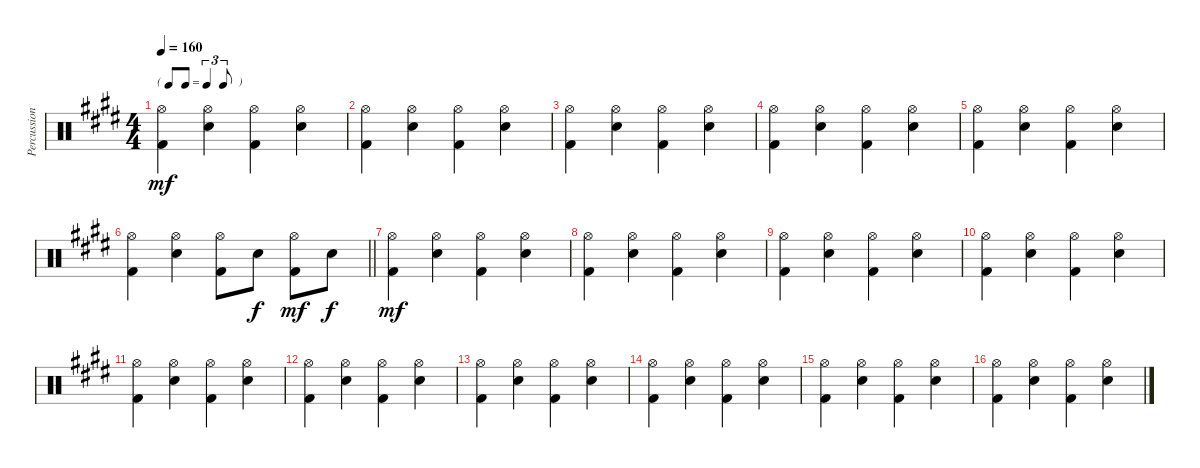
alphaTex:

\track ("Percussion" "Percussion") {instrument percussion}
\staff {score}
\articulation defaults
\ts (4 4)
\tf triplet8th
\tempo 160
\clef neutral
\ks e
("Hi-Hat (open)" "Kick (hit) 2").4{dy mf} ("Hi-Hat (open)" "Snare (hit) 2").4 ("Hi-Hat (open)" "Kick (hit) 2").4 ("Hi-Hat (open)" "Snare (hit) 2").4 |
("Hi-Hat (open)" "Kick (hit) 2").4 ("Hi-Hat (open)" "Snare (hit) 2").4 ("Hi-Hat (open)" "Kick (hit) 2").4 ("Hi-Hat (open)" "Snare (hit) 2").4 |
("Hi-Hat (open)" "Kick (hit) 2").4 ("Hi-Hat (open)" "Snare (hit) 2").4 ("Hi-Hat (open)" "Kick (hit) 2").4 ("Hi-Hat (open)" "Snare (hit) 2").4 |
("Hi-Hat (open)" "Kick (hit) 2").4 ("Hi-Hat (open)" "Snare (hit) 2").4 ("Hi-Hat (open)" "Kick (hit) 2").4 ("Hi-Hat (open)" "Snare (hit) 2").4 |
("Hi-Hat (open)" "Kick (hit) 2").4 ("Hi-Hat (open)" "Snare (hit) 2").4 ("Hi-Hat (open)" "Kick (hit) 2").4 ("Hi-Hat (open)" "Snare (hit) 2").4 |
\barLineRight lightlight
("Hi-Hat (open)" "Kick (hit) 2").4 ("Hi-Hat (open)" "Snare (hit) 2").4 ("Hi-Hat (open)" "Kick (hit) 2").8 "Snare (hit) 2".8{dy f} ("Hi-Hat (open)" "Kick (hit) 2").8{dy mf} "Snare (hit) 2".8{dy f} |
("Hi-Hat (open)" "Kick (hit) 2").4{dy mf} ("Hi-Hat (open)" "Snare (hit) 2").4 ("Hi-Hat (open)" "Kick (hit) 2").4 ("Hi-Hat (open)" "Snare (hit) 2").4 |
("Hi-Hat (open)" "Kick (hit) 2").4 ("Hi-Hat (open)" "Snare (hit) 2").4 ("Hi-Hat (open)" "Kick (hit) 2").4 ("Hi-Hat (open)" "Snare (hit) 2").4 |
("Hi-Hat (open)" "Kick (hit) 2").4 ("Hi-Hat (open)" "Snare (hit) 2").4 ("Hi-Hat (open)" "Kick (hit) 2").4 ("Hi-Hat (open)" "Snare (hit) 2").4 |
("Hi-Hat (open)" "Kick (hit) 2").4 ("Hi-Hat (open)" "Snare (hit) 2").4 ("Hi-Hat (open)" "Kick (hit) 2").4 ("Hi-Hat (open)" "Snare (hit) 2").4 |
("Hi-Hat (open)" "Kick (hit) 2").4 ("Hi-Hat (open)" "Snare (hit) 2").4 ("Hi-Hat (open)" "Kick (hit) 2").4 ("Hi-Hat (open)" "Snare (hit) 2").4 |
("Hi-Hat (open)" "Kick (hit) 2").4 ("Hi-Hat (open)" "Snare (hit) 2").4 ("Hi-Hat (open)" "Kick (hit) 2").4 ("Hi-Hat (open)" "Snare (hit) 2").4 |
("Hi-Hat (open)" "Kick (hit) 2").4 ("Hi-Hat (open)" "Snare (hit) 2").4 ("Hi-Hat (open)" "Kick (hit) 2").4 ("Hi-Hat (open)" "Snare (hit) 2").4 |
("Hi-Hat (open)" "Kick (hit) 2").4 ("Hi-Hat (open)" "Snare (hit) 2").4 ("Hi-Hat (open)" "Kick (hit) 2").4 ("Hi-Hat (open)" "Snare (hit) 2").4 |
("Hi-Hat (open)" "Kick (hit) 2").4 ("Hi-Hat (open)" "Snare (hit) 2").4 ("Hi-Hat (open)" "Kick (hit) 2").4 ("Hi-Hat (open)" "Snare (hit) 2").4 |
("Hi-Hat (open)" "Kick (hit) 2").4 ("Hi-Hat (open)" "Snare (hit) 2").4 ("Hi-Hat (open)" "Kick (hit) 2").4 ("Hi-Hat (open)" "Snare (hit) 2").4
